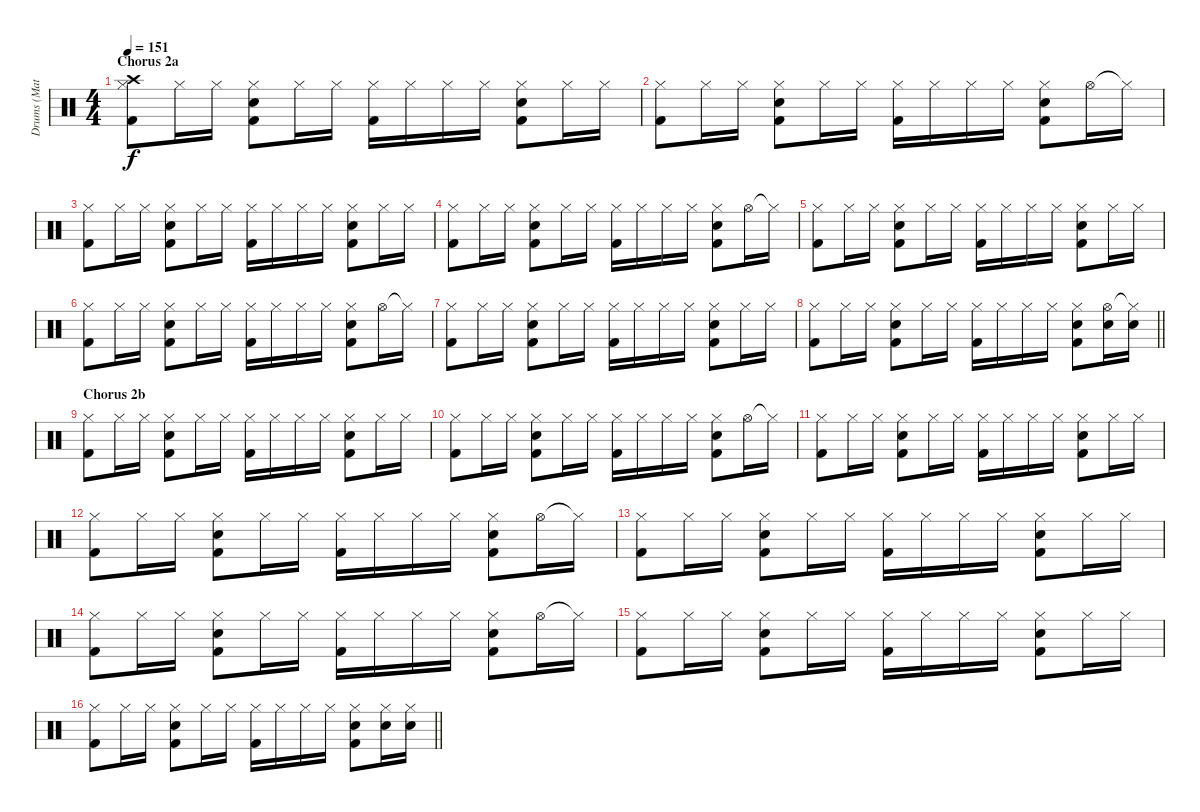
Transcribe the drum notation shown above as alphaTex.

\track ("Drums (Matt Tong)" "Drums (Mat") {instrument percussion}
\staff {score}
\articulation defaults
\ts (4 4)
\section ("" "Chorus 2a")
\tempo 151
\clef neutral
\ks c
("Hi-Hat (closed)" "Crash high (hit)" "Kick (hit) 2").8{dy f} "Hi-Hat (closed)".16 "Hi-Hat (closed)".16 ("Hi-Hat (closed)" "Electric Snare (hit)" "Kick (hit) 2").8 "Hi-Hat (closed)".16 "Hi-Hat (closed)".16 ("Hi-Hat (closed)" "Kick (hit) 2").16 "Hi-Hat (closed)".16 "Hi-Hat (closed)".16 "Hi-Hat (closed)".16 ("Hi-Hat (closed)" "Electric Snare (hit)" "Kick (hit) 2").8 "Hi-Hat (closed)".16 "Hi-Hat (closed)".16 |
("Hi-Hat (closed)" "Kick (hit) 2").8 "Hi-Hat (closed)".16 "Hi-Hat (closed)".16 ("Hi-Hat (closed)" "Electric Snare (hit)" "Kick (hit) 2").8 "Hi-Hat (closed)".16 "Hi-Hat (closed)".16 ("Hi-Hat (closed)" "Kick (hit) 2").16 "Hi-Hat (closed)".16 "Hi-Hat (closed)".16 "Hi-Hat (closed)".16 ("Hi-Hat (closed)" "Electric Snare (hit)" "Kick (hit) 2").8 "Hi-Hat (open)".16 "Hi-Hat (closed)"{t}.16 |
("Hi-Hat (closed)" "Kick (hit) 2").8 "Hi-Hat (closed)".16 "Hi-Hat (closed)".16 ("Hi-Hat (closed)" "Electric Snare (hit)" "Kick (hit) 2").8 "Hi-Hat (closed)".16 "Hi-Hat (closed)".16 ("Hi-Hat (closed)" "Kick (hit) 2").16 "Hi-Hat (closed)".16 "Hi-Hat (closed)".16 "Hi-Hat (closed)".16 ("Hi-Hat (closed)" "Electric Snare (hit)" "Kick (hit) 2").8 "Hi-Hat (closed)".16 "Hi-Hat (closed)".16 |
("Hi-Hat (closed)" "Kick (hit) 2").8 "Hi-Hat (closed)".16 "Hi-Hat (closed)".16 ("Hi-Hat (closed)" "Electric Snare (hit)" "Kick (hit) 2").8 "Hi-Hat (closed)".16 "Hi-Hat (closed)".16 ("Hi-Hat (closed)" "Kick (hit) 2").16 "Hi-Hat (closed)".16 "Hi-Hat (closed)".16 "Hi-Hat (closed)".16 ("Hi-Hat (closed)" "Electric Snare (hit)" "Kick (hit) 2").8 "Hi-Hat (open)".16 "Hi-Hat (closed)"{t}.16 |
("Hi-Hat (closed)" "Kick (hit) 2").8 "Hi-Hat (closed)".16 "Hi-Hat (closed)".16 ("Hi-Hat (closed)" "Electric Snare (hit)" "Kick (hit) 2").8 "Hi-Hat (closed)".16 "Hi-Hat (closed)".16 ("Hi-Hat (closed)" "Kick (hit) 2").16 "Hi-Hat (closed)".16 "Hi-Hat (closed)".16 "Hi-Hat (closed)".16 ("Hi-Hat (closed)" "Electric Snare (hit)" "Kick (hit) 2").8 "Hi-Hat (closed)".16 "Hi-Hat (closed)".16 |
("Hi-Hat (closed)" "Kick (hit) 2").8 "Hi-Hat (closed)".16 "Hi-Hat (closed)".16 ("Hi-Hat (closed)" "Electric Snare (hit)" "Kick (hit) 2").8 "Hi-Hat (closed)".16 "Hi-Hat (closed)".16 ("Hi-Hat (closed)" "Kick (hit) 2").16 "Hi-Hat (closed)".16 "Hi-Hat (closed)".16 "Hi-Hat (closed)".16 ("Hi-Hat (closed)" "Electric Snare (hit)" "Kick (hit) 2").8 "Hi-Hat (open)".16 "Hi-Hat (closed)"{t}.16 |
("Hi-Hat (closed)" "Kick (hit) 2").8 "Hi-Hat (closed)".16 "Hi-Hat (closed)".16 ("Hi-Hat (closed)" "Electric Snare (hit)" "Kick (hit) 2").8 "Hi-Hat (closed)".16 "Hi-Hat (closed)".16 ("Hi-Hat (closed)" "Kick (hit) 2").16 "Hi-Hat (closed)".16 "Hi-Hat (closed)".16 "Hi-Hat (closed)".16 ("Hi-Hat (closed)" "Electric Snare (hit)" "Kick (hit) 2").8 "Hi-Hat (closed)".16 "Hi-Hat (closed)".16 |
\barLineRight lightlight
("Hi-Hat (closed)" "Kick (hit) 2").8 "Hi-Hat (closed)".16 "Hi-Hat (closed)".16 ("Hi-Hat (closed)" "Electric Snare (hit)" "Kick (hit) 2").8 "Hi-Hat (closed)".16 "Hi-Hat (closed)".16 ("Hi-Hat (closed)" "Kick (hit) 2").16 "Hi-Hat (closed)".16 "Hi-Hat (closed)".16 "Hi-Hat (closed)".16 ("Hi-Hat (closed)" "Electric Snare (hit)" "Kick (hit) 2").8 ("Hi-Hat (open)" "Electric Snare (hit)").16 ("Hi-Hat (closed)"{t} "Electric Snare (hit)").16 |
\section ("" "Chorus 2b")
("Hi-Hat (closed)" "Kick (hit) 2").8 "Hi-Hat (closed)".16 "Hi-Hat (closed)".16 ("Hi-Hat (closed)" "Electric Snare (hit)" "Kick (hit) 2").8 "Hi-Hat (closed)".16 "Hi-Hat (closed)".16 ("Hi-Hat (closed)" "Kick (hit) 2").16 "Hi-Hat (closed)".16 "Hi-Hat (closed)".16 "Hi-Hat (closed)".16 ("Hi-Hat (closed)" "Electric Snare (hit)" "Kick (hit) 2").8 "Hi-Hat (closed)".16 "Hi-Hat (closed)".16 |
("Hi-Hat (closed)" "Kick (hit) 2").8 "Hi-Hat (closed)".16 "Hi-Hat (closed)".16 ("Hi-Hat (closed)" "Electric Snare (hit)" "Kick (hit) 2").8 "Hi-Hat (closed)".16 "Hi-Hat (closed)".16 ("Hi-Hat (closed)" "Kick (hit) 2").16 "Hi-Hat (closed)".16 "Hi-Hat (closed)".16 "Hi-Hat (closed)".16 ("Hi-Hat (closed)" "Electric Snare (hit)" "Kick (hit) 2").8 "Hi-Hat (open)".16 "Hi-Hat (closed)"{t}.16 |
("Hi-Hat (closed)" "Kick (hit) 2").8 "Hi-Hat (closed)".16 "Hi-Hat (closed)".16 ("Hi-Hat (closed)" "Electric Snare (hit)" "Kick (hit) 2").8 "Hi-Hat (closed)".16 "Hi-Hat (closed)".16 ("Hi-Hat (closed)" "Kick (hit) 2").16 "Hi-Hat (closed)".16 "Hi-Hat (closed)".16 "Hi-Hat (closed)".16 ("Hi-Hat (closed)" "Electric Snare (hit)" "Kick (hit) 2").8 "Hi-Hat (closed)".16 "Hi-Hat (closed)".16 |
("Hi-Hat (closed)" "Kick (hit) 2").8 "Hi-Hat (closed)".16 "Hi-Hat (closed)".16 ("Hi-Hat (closed)" "Electric Snare (hit)" "Kick (hit) 2").8 "Hi-Hat (closed)".16 "Hi-Hat (closed)".16 ("Hi-Hat (closed)" "Kick (hit) 2").16 "Hi-Hat (closed)".16 "Hi-Hat (closed)".16 "Hi-Hat (closed)".16 ("Hi-Hat (closed)" "Electric Snare (hit)" "Kick (hit) 2").8 "Hi-Hat (open)".16 "Hi-Hat (closed)"{t}.16 |
("Hi-Hat (closed)" "Kick (hit) 2").8 "Hi-Hat (closed)".16 "Hi-Hat (closed)".16 ("Hi-Hat (closed)" "Electric Snare (hit)" "Kick (hit) 2").8 "Hi-Hat (closed)".16 "Hi-Hat (closed)".16 ("Hi-Hat (closed)" "Kick (hit) 2").16 "Hi-Hat (closed)".16 "Hi-Hat (closed)".16 "Hi-Hat (closed)".16 ("Hi-Hat (closed)" "Electric Snare (hit)" "Kick (hit) 2").8 "Hi-Hat (closed)".16 "Hi-Hat (closed)".16 |
("Hi-Hat (closed)" "Kick (hit) 2").8 "Hi-Hat (closed)".16 "Hi-Hat (closed)".16 ("Hi-Hat (closed)" "Electric Snare (hit)" "Kick (hit) 2").8 "Hi-Hat (closed)".16 "Hi-Hat (closed)".16 ("Hi-Hat (closed)" "Kick (hit) 2").16 "Hi-Hat (closed)".16 "Hi-Hat (closed)".16 "Hi-Hat (closed)".16 ("Hi-Hat (closed)" "Electric Snare (hit)" "Kick (hit) 2").8 "Hi-Hat (open)".16 "Hi-Hat (closed)"{t}.16 |
("Hi-Hat (closed)" "Kick (hit) 2").8 "Hi-Hat (closed)".16 "Hi-Hat (closed)".16 ("Hi-Hat (closed)" "Electric Snare (hit)" "Kick (hit) 2").8 "Hi-Hat (closed)".16 "Hi-Hat (closed)".16 ("Hi-Hat (closed)" "Kick (hit) 2").16 "Hi-Hat (closed)".16 "Hi-Hat (closed)".16 "Hi-Hat (closed)".16 ("Hi-Hat (closed)" "Electric Snare (hit)" "Kick (hit) 2").8 "Hi-Hat (closed)".16 "Hi-Hat (closed)".16 |
\barLineRight lightlight
("Hi-Hat (closed)" "Kick (hit) 2").8 "Hi-Hat (closed)".16 "Hi-Hat (closed)".16 ("Hi-Hat (closed)" "Electric Snare (hit)" "Kick (hit) 2").8 "Hi-Hat (closed)".16 "Hi-Hat (closed)".16 ("Hi-Hat (closed)" "Kick (hit) 2").16 "Hi-Hat (closed)".16 "Hi-Hat (closed)".16 "Hi-Hat (closed)".16 ("Hi-Hat (closed)" "Electric Snare (hit)" "Kick (hit) 2").8 ("Hi-Hat (closed)" "Electric Snare (hit)").16 ("Hi-Hat (closed)" "Electric Snare (hit)").16
